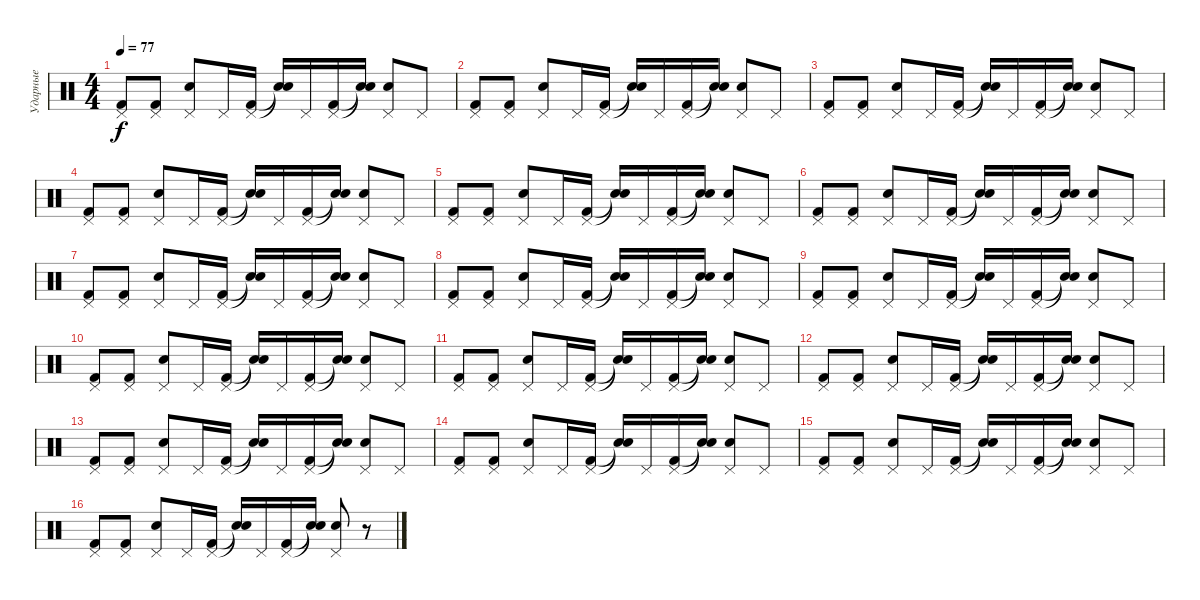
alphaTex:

\track ("Ударные" "Ударные") {instrument percussion}
\staff {score}
\articulation defaults
\ts (4 4)
\tempo 77
\clef neutral
\ks c
("Kick (hit) 2" "Pedal Hi-Hat (hit)").8{dy f} ("Kick (hit) 2" "Pedal Hi-Hat (hit)").8 ("Electric Snare (hit)" "Pedal Hi-Hat (hit)").8 "Pedal Hi-Hat (hit)".16 ("Kick (hit) 2" "Pedal Hi-Hat (hit)").16 ("Snare (hit)"{t} "Snare (hit)"{t}).16 "Pedal Hi-Hat (hit)".16 ("Kick (hit) 2" "Pedal Hi-Hat (hit)").16 ("Snare (hit)"{t} "Snare (hit)"{t}).16 ("Electric Snare (hit)" "Pedal Hi-Hat (hit)").8 "Pedal Hi-Hat (hit)".8 |
("Kick (hit) 2" "Pedal Hi-Hat (hit)").8 ("Kick (hit) 2" "Pedal Hi-Hat (hit)").8 ("Electric Snare (hit)" "Pedal Hi-Hat (hit)").8 "Pedal Hi-Hat (hit)".16 ("Kick (hit) 2" "Pedal Hi-Hat (hit)").16 ("Snare (hit)"{t} "Snare (hit)"{t}).16 "Pedal Hi-Hat (hit)".16 ("Kick (hit) 2" "Pedal Hi-Hat (hit)").16 ("Snare (hit)"{t} "Snare (hit)"{t}).16 ("Electric Snare (hit)" "Pedal Hi-Hat (hit)").8 "Pedal Hi-Hat (hit)".8 |
("Kick (hit) 2" "Pedal Hi-Hat (hit)").8 ("Kick (hit) 2" "Pedal Hi-Hat (hit)").8 ("Electric Snare (hit)" "Pedal Hi-Hat (hit)").8 "Pedal Hi-Hat (hit)".16 ("Kick (hit) 2" "Pedal Hi-Hat (hit)").16 ("Snare (hit)"{t} "Snare (hit)"{t}).16 "Pedal Hi-Hat (hit)".16 ("Kick (hit) 2" "Pedal Hi-Hat (hit)").16 ("Snare (hit)"{t} "Snare (hit)"{t}).16 ("Electric Snare (hit)" "Pedal Hi-Hat (hit)").8 "Pedal Hi-Hat (hit)".8 |
("Kick (hit) 2" "Pedal Hi-Hat (hit)").8 ("Kick (hit) 2" "Pedal Hi-Hat (hit)").8 ("Electric Snare (hit)" "Pedal Hi-Hat (hit)").8 "Pedal Hi-Hat (hit)".16 ("Kick (hit) 2" "Pedal Hi-Hat (hit)").16 ("Snare (hit)"{t} "Snare (hit)"{t}).16 "Pedal Hi-Hat (hit)".16 ("Kick (hit) 2" "Pedal Hi-Hat (hit)").16 ("Snare (hit)"{t} "Snare (hit)"{t}).16 ("Electric Snare (hit)" "Pedal Hi-Hat (hit)").8 "Pedal Hi-Hat (hit)".8 |
("Kick (hit) 2" "Pedal Hi-Hat (hit)").8 ("Kick (hit) 2" "Pedal Hi-Hat (hit)").8 ("Electric Snare (hit)" "Pedal Hi-Hat (hit)").8 "Pedal Hi-Hat (hit)".16 ("Kick (hit) 2" "Pedal Hi-Hat (hit)").16 ("Snare (hit)"{t} "Snare (hit)"{t}).16 "Pedal Hi-Hat (hit)".16 ("Kick (hit) 2" "Pedal Hi-Hat (hit)").16 ("Snare (hit)"{t} "Snare (hit)"{t}).16 ("Electric Snare (hit)" "Pedal Hi-Hat (hit)").8 "Pedal Hi-Hat (hit)".8 |
("Kick (hit) 2" "Pedal Hi-Hat (hit)").8 ("Kick (hit) 2" "Pedal Hi-Hat (hit)").8 ("Electric Snare (hit)" "Pedal Hi-Hat (hit)").8 "Pedal Hi-Hat (hit)".16 ("Kick (hit) 2" "Pedal Hi-Hat (hit)").16 ("Snare (hit)"{t} "Snare (hit)"{t}).16 "Pedal Hi-Hat (hit)".16 ("Kick (hit) 2" "Pedal Hi-Hat (hit)").16 ("Snare (hit)"{t} "Snare (hit)"{t}).16 ("Electric Snare (hit)" "Pedal Hi-Hat (hit)").8 "Pedal Hi-Hat (hit)".8 |
("Kick (hit) 2" "Pedal Hi-Hat (hit)").8 ("Kick (hit) 2" "Pedal Hi-Hat (hit)").8 ("Electric Snare (hit)" "Pedal Hi-Hat (hit)").8 "Pedal Hi-Hat (hit)".16 ("Kick (hit) 2" "Pedal Hi-Hat (hit)").16 ("Snare (hit)"{t} "Snare (hit)"{t}).16 "Pedal Hi-Hat (hit)".16 ("Kick (hit) 2" "Pedal Hi-Hat (hit)").16 ("Snare (hit)"{t} "Snare (hit)"{t}).16 ("Electric Snare (hit)" "Pedal Hi-Hat (hit)").8 "Pedal Hi-Hat (hit)".8 |
("Kick (hit) 2" "Pedal Hi-Hat (hit)").8 ("Kick (hit) 2" "Pedal Hi-Hat (hit)").8 ("Electric Snare (hit)" "Pedal Hi-Hat (hit)").8 "Pedal Hi-Hat (hit)".16 ("Kick (hit) 2" "Pedal Hi-Hat (hit)").16 ("Snare (hit)"{t} "Snare (hit)"{t}).16 "Pedal Hi-Hat (hit)".16 ("Kick (hit) 2" "Pedal Hi-Hat (hit)").16 ("Snare (hit)"{t} "Snare (hit)"{t}).16 ("Electric Snare (hit)" "Pedal Hi-Hat (hit)").8 "Pedal Hi-Hat (hit)".8 |
("Kick (hit) 2" "Pedal Hi-Hat (hit)").8 ("Kick (hit) 2" "Pedal Hi-Hat (hit)").8 ("Electric Snare (hit)" "Pedal Hi-Hat (hit)").8 "Pedal Hi-Hat (hit)".16 ("Kick (hit) 2" "Pedal Hi-Hat (hit)").16 ("Snare (hit)"{t} "Snare (hit)"{t}).16 "Pedal Hi-Hat (hit)".16 ("Kick (hit) 2" "Pedal Hi-Hat (hit)").16 ("Snare (hit)"{t} "Snare (hit)"{t}).16 ("Electric Snare (hit)" "Pedal Hi-Hat (hit)").8 "Pedal Hi-Hat (hit)".8 |
("Kick (hit) 2" "Pedal Hi-Hat (hit)").8 ("Kick (hit) 2" "Pedal Hi-Hat (hit)").8 ("Electric Snare (hit)" "Pedal Hi-Hat (hit)").8 "Pedal Hi-Hat (hit)".16 ("Kick (hit) 2" "Pedal Hi-Hat (hit)").16 ("Snare (hit)"{t} "Snare (hit)"{t}).16 "Pedal Hi-Hat (hit)".16 ("Kick (hit) 2" "Pedal Hi-Hat (hit)").16 ("Snare (hit)"{t} "Snare (hit)"{t}).16 ("Electric Snare (hit)" "Pedal Hi-Hat (hit)").8 "Pedal Hi-Hat (hit)".8 |
("Kick (hit) 2" "Pedal Hi-Hat (hit)").8 ("Kick (hit) 2" "Pedal Hi-Hat (hit)").8 ("Electric Snare (hit)" "Pedal Hi-Hat (hit)").8 "Pedal Hi-Hat (hit)".16 ("Kick (hit) 2" "Pedal Hi-Hat (hit)").16 ("Snare (hit)"{t} "Snare (hit)"{t}).16 "Pedal Hi-Hat (hit)".16 ("Kick (hit) 2" "Pedal Hi-Hat (hit)").16 ("Snare (hit)"{t} "Snare (hit)"{t}).16 ("Electric Snare (hit)" "Pedal Hi-Hat (hit)").8 "Pedal Hi-Hat (hit)".8 |
("Kick (hit) 2" "Pedal Hi-Hat (hit)").8 ("Kick (hit) 2" "Pedal Hi-Hat (hit)").8 ("Electric Snare (hit)" "Pedal Hi-Hat (hit)").8 "Pedal Hi-Hat (hit)".16 ("Kick (hit) 2" "Pedal Hi-Hat (hit)").16 ("Snare (hit)"{t} "Snare (hit)"{t}).16 "Pedal Hi-Hat (hit)".16 ("Kick (hit) 2" "Pedal Hi-Hat (hit)").16 ("Snare (hit)"{t} "Snare (hit)"{t}).16 ("Electric Snare (hit)" "Pedal Hi-Hat (hit)").8 "Pedal Hi-Hat (hit)".8 |
("Kick (hit) 2" "Pedal Hi-Hat (hit)").8 ("Kick (hit) 2" "Pedal Hi-Hat (hit)").8 ("Electric Snare (hit)" "Pedal Hi-Hat (hit)").8 "Pedal Hi-Hat (hit)".16 ("Kick (hit) 2" "Pedal Hi-Hat (hit)").16 ("Snare (hit)"{t} "Snare (hit)"{t}).16 "Pedal Hi-Hat (hit)".16 ("Kick (hit) 2" "Pedal Hi-Hat (hit)").16 ("Snare (hit)"{t} "Snare (hit)"{t}).16 ("Electric Snare (hit)" "Pedal Hi-Hat (hit)").8 "Pedal Hi-Hat (hit)".8 |
("Kick (hit) 2" "Pedal Hi-Hat (hit)").8 ("Kick (hit) 2" "Pedal Hi-Hat (hit)").8 ("Electric Snare (hit)" "Pedal Hi-Hat (hit)").8 "Pedal Hi-Hat (hit)".16 ("Kick (hit) 2" "Pedal Hi-Hat (hit)").16 ("Snare (hit)"{t} "Snare (hit)"{t}).16 "Pedal Hi-Hat (hit)".16 ("Kick (hit) 2" "Pedal Hi-Hat (hit)").16 ("Snare (hit)"{t} "Snare (hit)"{t}).16 ("Electric Snare (hit)" "Pedal Hi-Hat (hit)").8 "Pedal Hi-Hat (hit)".8 |
("Kick (hit) 2" "Pedal Hi-Hat (hit)").8 ("Kick (hit) 2" "Pedal Hi-Hat (hit)").8 ("Electric Snare (hit)" "Pedal Hi-Hat (hit)").8 "Pedal Hi-Hat (hit)".16 ("Kick (hit) 2" "Pedal Hi-Hat (hit)").16 ("Snare (hit)"{t} "Snare (hit)"{t}).16 "Pedal Hi-Hat (hit)".16 ("Kick (hit) 2" "Pedal Hi-Hat (hit)").16 ("Snare (hit)"{t} "Snare (hit)"{t}).16 ("Electric Snare (hit)" "Pedal Hi-Hat (hit)").8 "Pedal Hi-Hat (hit)".8 |
("Kick (hit) 2" "Pedal Hi-Hat (hit)").8 ("Kick (hit) 2" "Pedal Hi-Hat (hit)").8 ("Electric Snare (hit)" "Pedal Hi-Hat (hit)").8 "Pedal Hi-Hat (hit)".16 ("Kick (hit) 2" "Pedal Hi-Hat (hit)").16 ("Snare (hit)"{t} "Snare (hit)"{t}).16 "Pedal Hi-Hat (hit)".16 ("Kick (hit) 2" "Pedal Hi-Hat (hit)").16 ("Snare (hit)"{t} "Snare (hit)"{t}).16 ("Electric Snare (hit)" "Pedal Hi-Hat (hit)").8 r.8
